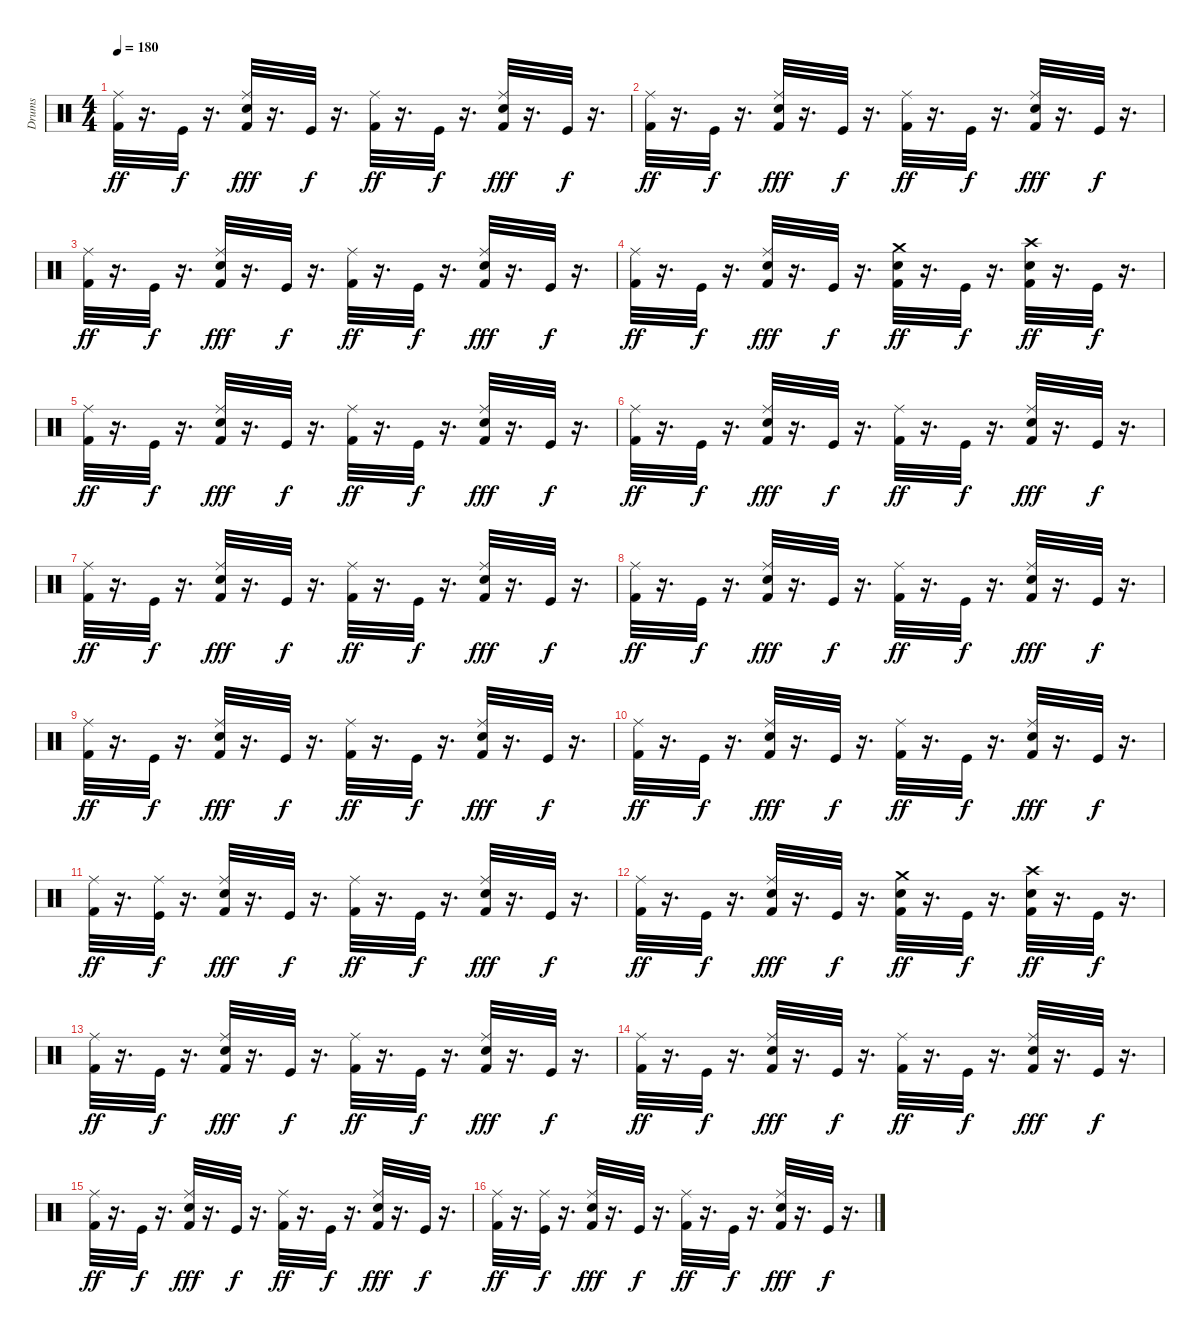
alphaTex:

\track ("Drums" "Drums") {instrument percussion}
\staff {score}
\articulation defaults
\ts (4 4)
\tempo 180
\clef neutral
\ks c
("Kick (hit) 2" "Ride (middle)").32{dy ff} r.16{d} "Kick (hit)".32{dy f} r.16{d} ("Snare (hit) 2" "Kick (hit) 2" "Ride (middle)").32{dy fff} r.16{d} "Kick (hit)".32{dy f} r.16{d} ("Kick (hit) 2" "Ride (middle)").32{dy ff} r.16{d} "Kick (hit)".32{dy f} r.16{d} ("Snare (hit) 2" "Kick (hit) 2" "Ride (middle)").32{dy fff} r.16{d} "Kick (hit)".32{dy f} r.16{d} |
("Kick (hit) 2" "Ride (middle)").32{dy ff} r.16{d} "Kick (hit)".32{dy f} r.16{d} ("Snare (hit) 2" "Kick (hit) 2" "Ride (middle)").32{dy fff} r.16{d} "Kick (hit)".32{dy f} r.16{d} ("Kick (hit) 2" "Ride (middle)").32{dy ff} r.16{d} "Kick (hit)".32{dy f} r.16{d} ("Snare (hit) 2" "Kick (hit) 2" "Ride (middle)").32{dy fff} r.16{d} "Kick (hit)".32{dy f} r.16{d} |
("Kick (hit) 2" "Ride (middle)").32{dy ff} r.16{d} "Kick (hit)".32{dy f} r.16{d} ("Snare (hit) 2" "Kick (hit) 2" "Ride (middle)").32{dy fff} r.16{d} "Kick (hit)".32{dy f} r.16{d} ("Kick (hit) 2" "Ride (middle)").32{dy ff} r.16{d} "Kick (hit)".32{dy f} r.16{d} ("Snare (hit) 2" "Kick (hit) 2" "Ride (middle)").32{dy fff} r.16{d} "Kick (hit)".32{dy f} r.16{d} |
("Kick (hit) 2" "Ride (middle)").32{dy ff} r.16{d} "Kick (hit)".32{dy f} r.16{d} ("Snare (hit) 2" "Kick (hit) 2" "Ride (middle)").32{dy fff} r.16{d} "Kick (hit)".32{dy f} r.16{d} ("Crash medium (hit)" "Snare (hit) 2" "Kick (hit) 2").32{dy ff} r.16{d} "Kick (hit)".32{dy f} r.16{d} ("Crash high (hit)" "Snare (hit) 2" "Kick (hit) 2").32{dy ff} r.16{d} "Kick (hit)".32{dy f} r.16{d} |
("Kick (hit) 2" "Ride (middle)").32{dy ff} r.16{d} "Kick (hit)".32{dy f} r.16{d} ("Snare (hit) 2" "Kick (hit) 2" "Ride (middle)").32{dy fff} r.16{d} "Kick (hit)".32{dy f} r.16{d} ("Kick (hit) 2" "Ride (middle)").32{dy ff} r.16{d} "Kick (hit)".32{dy f} r.16{d} ("Snare (hit) 2" "Kick (hit) 2" "Ride (middle)").32{dy fff} r.16{d} "Kick (hit)".32{dy f} r.16{d} |
("Kick (hit) 2" "Ride (middle)").32{dy ff} r.16{d} "Kick (hit)".32{dy f} r.16{d} ("Snare (hit) 2" "Kick (hit) 2" "Ride (middle)").32{dy fff} r.16{d} "Kick (hit)".32{dy f} r.16{d} ("Kick (hit) 2" "Ride (middle)").32{dy ff} r.16{d} "Kick (hit)".32{dy f} r.16{d} ("Snare (hit) 2" "Kick (hit) 2" "Ride (middle)").32{dy fff} r.16{d} "Kick (hit)".32{dy f} r.16{d} |
("Kick (hit) 2" "Ride (middle)").32{dy ff} r.16{d} "Kick (hit)".32{dy f} r.16{d} ("Snare (hit) 2" "Kick (hit) 2" "Ride (middle)").32{dy fff} r.16{d} "Kick (hit)".32{dy f} r.16{d} ("Kick (hit) 2" "Ride (middle)").32{dy ff} r.16{d} "Kick (hit)".32{dy f} r.16{d} ("Snare (hit) 2" "Kick (hit) 2" "Ride (middle)").32{dy fff} r.16{d} "Kick (hit)".32{dy f} r.16{d} |
("Kick (hit) 2" "Ride (middle)").32{dy ff} r.16{d} "Kick (hit)".32{dy f} r.16{d} ("Snare (hit) 2" "Kick (hit) 2" "Ride (middle)").32{dy fff} r.16{d} "Kick (hit)".32{dy f} r.16{d} ("Kick (hit) 2" "Ride (middle)").32{dy ff} r.16{d} "Kick (hit)".32{dy f} r.16{d} ("Snare (hit) 2" "Kick (hit) 2" "Ride (middle)").32{dy fff} r.16{d} "Kick (hit)".32{dy f} r.16{d} |
("Kick (hit) 2" "Ride (middle)").32{dy ff} r.16{d} "Kick (hit)".32{dy f} r.16{d} ("Snare (hit) 2" "Kick (hit) 2" "Ride (middle)").32{dy fff} r.16{d} "Kick (hit)".32{dy f} r.16{d} ("Kick (hit) 2" "Ride (middle)").32{dy ff} r.16{d} "Kick (hit)".32{dy f} r.16{d} ("Snare (hit) 2" "Kick (hit) 2" "Ride (middle)").32{dy fff} r.16{d} "Kick (hit)".32{dy f} r.16{d} |
("Kick (hit) 2" "Ride (middle)").32{dy ff} r.16{d} "Kick (hit)".32{dy f} r.16{d} ("Snare (hit) 2" "Kick (hit) 2" "Ride (middle)").32{dy fff} r.16{d} "Kick (hit)".32{dy f} r.16{d} ("Kick (hit) 2" "Ride (middle)").32{dy ff} r.16{d} "Kick (hit)".32{dy f} r.16{d} ("Snare (hit) 2" "Kick (hit) 2" "Ride (middle)").32{dy fff} r.16{d} "Kick (hit)".32{dy f} r.16{d} |
("Kick (hit) 2" "Ride (middle)").32{dy ff} r.16{d} ("Ride (middle)" "Kick (hit)").32{dy f} r.16{d} ("Snare (hit) 2" "Kick (hit) 2" "Ride (middle)").32{dy fff} r.16{d} "Kick (hit)".32{dy f} r.16{d} ("Kick (hit) 2" "Ride (middle)").32{dy ff} r.16{d} "Kick (hit)".32{dy f} r.16{d} ("Snare (hit) 2" "Kick (hit) 2" "Ride (middle)").32{dy fff} r.16{d} "Kick (hit)".32{dy f} r.16{d} |
("Kick (hit) 2" "Ride (middle)").32{dy ff} r.16{d} "Kick (hit)".32{dy f} r.16{d} ("Snare (hit) 2" "Kick (hit) 2" "Ride (middle)").32{dy fff} r.16{d} "Kick (hit)".32{dy f} r.16{d} ("Crash medium (hit)" "Snare (hit) 2" "Kick (hit) 2").32{dy ff} r.16{d} "Kick (hit)".32{dy f} r.16{d} ("Crash high (hit)" "Snare (hit) 2" "Kick (hit) 2").32{dy ff} r.16{d} "Kick (hit)".32{dy f} r.16{d} |
("Kick (hit) 2" "Ride (middle)").32{dy ff} r.16{d} "Kick (hit)".32{dy f} r.16{d} ("Snare (hit) 2" "Kick (hit) 2" "Ride (middle)").32{dy fff} r.16{d} "Kick (hit)".32{dy f} r.16{d} ("Kick (hit) 2" "Ride (middle)").32{dy ff} r.16{d} "Kick (hit)".32{dy f} r.16{d} ("Snare (hit) 2" "Kick (hit) 2" "Ride (middle)").32{dy fff} r.16{d} "Kick (hit)".32{dy f} r.16{d} |
("Kick (hit) 2" "Ride (middle)").32{dy ff} r.16{d} "Kick (hit)".32{dy f} r.16{d} ("Snare (hit) 2" "Kick (hit) 2" "Ride (middle)").32{dy fff} r.16{d} "Kick (hit)".32{dy f} r.16{d} ("Kick (hit) 2" "Ride (middle)").32{dy ff} r.16{d} "Kick (hit)".32{dy f} r.16{d} ("Snare (hit) 2" "Kick (hit) 2" "Ride (middle)").32{dy fff} r.16{d} "Kick (hit)".32{dy f} r.16{d} |
("Kick (hit) 2" "Ride (middle)").32{dy ff} r.16{d} "Kick (hit)".32{dy f} r.16{d} ("Snare (hit) 2" "Kick (hit) 2" "Ride (middle)").32{dy fff} r.16{d} "Kick (hit)".32{dy f} r.16{d} ("Kick (hit) 2" "Ride (middle)").32{dy ff} r.16{d} "Kick (hit)".32{dy f} r.16{d} ("Snare (hit) 2" "Kick (hit) 2" "Ride (middle)").32{dy fff} r.16{d} "Kick (hit)".32{dy f} r.16{d} |
("Kick (hit) 2" "Ride (middle)").32{dy ff} r.16{d} ("Ride (middle)" "Kick (hit)").32{dy f} r.16{d} ("Snare (hit) 2" "Kick (hit) 2" "Ride (middle)").32{dy fff} r.16{d} "Kick (hit)".32{dy f} r.16{d} ("Kick (hit) 2" "Ride (middle)").32{dy ff} r.16{d} "Kick (hit)".32{dy f} r.16{d} ("Snare (hit) 2" "Kick (hit) 2" "Ride (middle)").32{dy fff} r.16{d} "Kick (hit)".32{dy f} r.16{d}
